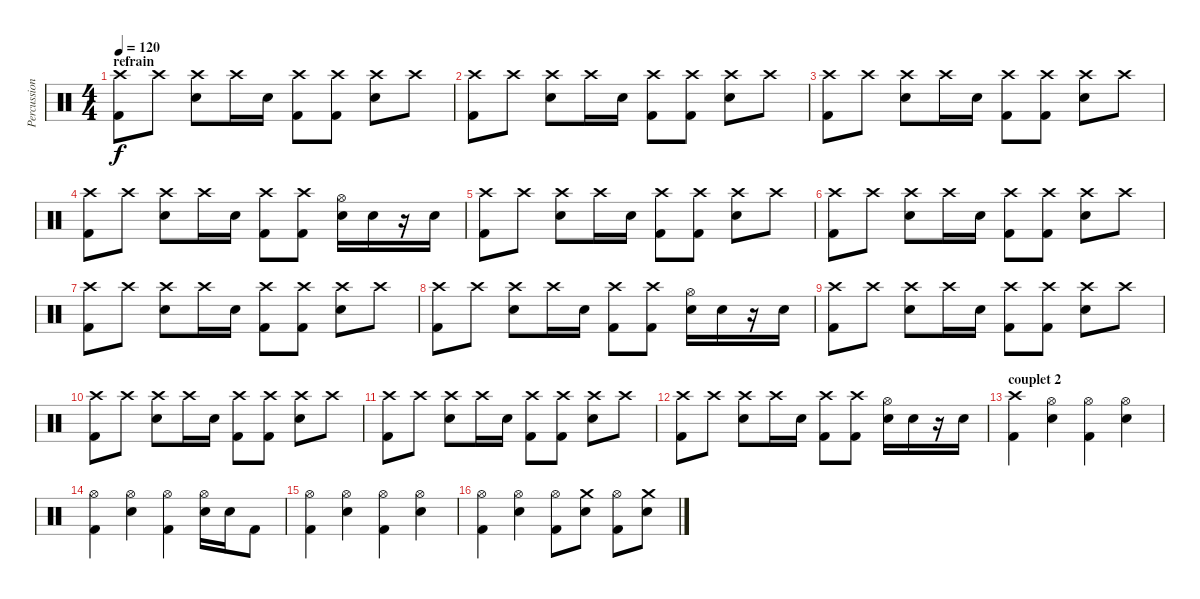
\track ("Percussions" "Percussion") {instrument percussion}
\staff {score}
\articulation defaults
\ts (4 4)
\section ("" "refrain")
\tempo 120
\clef neutral
\ks c
("Crash high (hit)" "Kick (hit) 2").8{dy f} "Crash high (hit)".8 ("Crash high (hit)" "Snare (hit) 2").8 "Crash high (hit)".16 "Snare (hit) 2".16 ("Crash high (hit)" "Kick (hit) 2").8 ("Crash high (hit)" "Kick (hit) 2").8 ("Crash high (hit)" "Snare (hit) 2").8 "Crash high (hit)".8 |
("Crash high (hit)" "Kick (hit) 2").8 "Crash high (hit)".8 ("Crash high (hit)" "Snare (hit) 2").8 "Crash high (hit)".16 "Snare (hit) 2".16 ("Crash high (hit)" "Kick (hit) 2").8 ("Crash high (hit)" "Kick (hit) 2").8 ("Crash high (hit)" "Snare (hit) 2").8 "Crash high (hit)".8 |
("Crash high (hit)" "Kick (hit) 2").8 "Crash high (hit)".8 ("Crash high (hit)" "Snare (hit) 2").8 "Crash high (hit)".16 "Snare (hit) 2".16 ("Crash high (hit)" "Kick (hit) 2").8 ("Crash high (hit)" "Kick (hit) 2").8 ("Crash high (hit)" "Snare (hit) 2").8 "Crash high (hit)".8 |
("Crash high (hit)" "Kick (hit) 2").8 "Crash high (hit)".8 ("Crash high (hit)" "Snare (hit) 2").8 "Crash high (hit)".16 "Snare (hit) 2".16 ("Crash high (hit)" "Kick (hit) 2").8 ("Crash high (hit)" "Kick (hit) 2").8 ("Hi-Hat (open)" "Snare (hit) 2").16 "Snare (hit) 2".16 r.16 "Snare (hit) 2".16 |
("Crash high (hit)" "Kick (hit) 2").8 "Crash high (hit)".8 ("Crash high (hit)" "Snare (hit) 2").8 "Crash high (hit)".16 "Snare (hit) 2".16 ("Crash high (hit)" "Kick (hit) 2").8 ("Crash high (hit)" "Kick (hit) 2").8 ("Crash high (hit)" "Snare (hit) 2").8 "Crash high (hit)".8 |
("Crash high (hit)" "Kick (hit) 2").8 "Crash high (hit)".8 ("Crash high (hit)" "Snare (hit) 2").8 "Crash high (hit)".16 "Snare (hit) 2".16 ("Crash high (hit)" "Kick (hit) 2").8 ("Crash high (hit)" "Kick (hit) 2").8 ("Crash high (hit)" "Snare (hit) 2").8 "Crash high (hit)".8 |
("Crash high (hit)" "Kick (hit) 2").8 "Crash high (hit)".8 ("Crash high (hit)" "Snare (hit) 2").8 "Crash high (hit)".16 "Snare (hit) 2".16 ("Crash high (hit)" "Kick (hit) 2").8 ("Crash high (hit)" "Kick (hit) 2").8 ("Crash high (hit)" "Snare (hit) 2").8 "Crash high (hit)".8 |
("Crash high (hit)" "Kick (hit) 2").8 "Crash high (hit)".8 ("Crash high (hit)" "Snare (hit) 2").8 "Crash high (hit)".16 "Snare (hit) 2".16 ("Crash high (hit)" "Kick (hit) 2").8 ("Crash high (hit)" "Kick (hit) 2").8 ("Hi-Hat (open)" "Snare (hit) 2").16 "Snare (hit) 2".16 r.16 "Snare (hit) 2".16 |
("Crash high (hit)" "Kick (hit) 2").8 "Crash high (hit)".8 ("Crash high (hit)" "Snare (hit) 2").8 "Crash high (hit)".16 "Snare (hit) 2".16 ("Crash high (hit)" "Kick (hit) 2").8 ("Crash high (hit)" "Kick (hit) 2").8 ("Crash high (hit)" "Snare (hit) 2").8 "Crash high (hit)".8 |
("Crash high (hit)" "Kick (hit) 2").8 "Crash high (hit)".8 ("Crash high (hit)" "Snare (hit) 2").8 "Crash high (hit)".16 "Snare (hit) 2".16 ("Crash high (hit)" "Kick (hit) 2").8 ("Crash high (hit)" "Kick (hit) 2").8 ("Crash high (hit)" "Snare (hit) 2").8 "Crash high (hit)".8 |
("Crash high (hit)" "Kick (hit) 2").8 "Crash high (hit)".8 ("Crash high (hit)" "Snare (hit) 2").8 "Crash high (hit)".16 "Snare (hit) 2".16 ("Crash high (hit)" "Kick (hit) 2").8 ("Crash high (hit)" "Kick (hit) 2").8 ("Crash high (hit)" "Snare (hit) 2").8 "Crash high (hit)".8 |
("Crash high (hit)" "Kick (hit) 2").8 "Crash high (hit)".8 ("Crash high (hit)" "Snare (hit) 2").8 "Crash high (hit)".16 "Snare (hit) 2".16 ("Crash high (hit)" "Kick (hit) 2").8 ("Crash high (hit)" "Kick (hit) 2").8 ("Hi-Hat (open)" "Snare (hit) 2").16 "Snare (hit) 2".16 r.16 "Snare (hit) 2".16 |
\section ("" "couplet 2")
("Crash high (hit)" "Kick (hit) 2").4 ("Hi-Hat (open)" "Snare (hit) 2").4 ("Hi-Hat (open)" "Kick (hit) 2").4 ("Hi-Hat (open)" "Snare (hit) 2").4 |
("Hi-Hat (open)" "Kick (hit) 2").4 ("Hi-Hat (open)" "Snare (hit) 2").4 ("Hi-Hat (open)" "Kick (hit) 2").4 ("Hi-Hat (open)" "Snare (hit) 2").16 "Snare (hit) 2".16 "Kick (hit) 2".8 |
("Hi-Hat (open)" "Kick (hit) 2").4 ("Hi-Hat (open)" "Snare (hit) 2").4 ("Hi-Hat (open)" "Kick (hit) 2").4 ("Hi-Hat (open)" "Snare (hit) 2").4 |
("Hi-Hat (open)" "Kick (hit) 2").4 ("Hi-Hat (open)" "Snare (hit) 2").4 ("Hi-Hat (open)" "Kick (hit) 2").8 ("Crash medium (hit)" "Snare (hit) 2").8 ("Hi-Hat (open)" "Kick (hit) 2").8 ("Crash medium (hit)" "Snare (hit) 2").8
